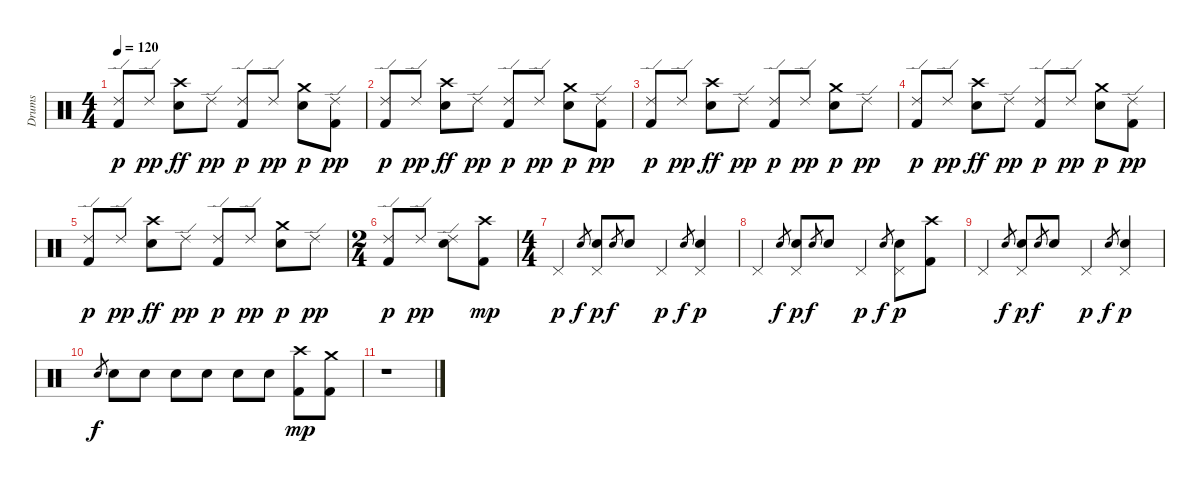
\track ("Drums" "Drums") {instrument percussion}
\staff {score}
\articulation defaults
\ts (4 4)
\tempo 120
\clef neutral
\ks c
("Ride (edge) 2" "Kick (hit) 2").8{dy p} "Ride (edge) 2".8{dy pp} ("Crash high (hit)" "Electric Snare (hit)").8{dy ff} "Ride (edge) 2".8{dy pp} ("Kick (hit) 2" "Ride (edge) 2").8{dy p} "Ride (edge) 2".8{dy pp} ("Electric Snare (hit)" "Crash medium (hit)").8{dy p} ("Ride (edge) 2" "Kick (hit) 2").8{dy pp} |
("Ride (edge) 2" "Kick (hit) 2").8{dy p} "Ride (edge) 2".8{dy pp} ("Crash high (hit)" "Electric Snare (hit)").8{dy ff} "Ride (edge) 2".8{dy pp} ("Kick (hit) 2" "Ride (edge) 2").8{dy p} "Ride (edge) 2".8{dy pp} ("Electric Snare (hit)" "Crash medium (hit)").8{dy p} ("Ride (edge) 2" "Kick (hit) 2").8{dy pp} |
("Ride (edge) 2" "Kick (hit) 2").8{dy p} "Ride (edge) 2".8{dy pp} ("Crash high (hit)" "Electric Snare (hit)").8{dy ff} "Ride (edge) 2".8{dy pp} ("Kick (hit) 2" "Ride (edge) 2").8{dy p} "Ride (edge) 2".8{dy pp} ("Electric Snare (hit)" "Crash medium (hit)").8{dy p} "Ride (edge) 2".8{dy pp} |
("Ride (edge) 2" "Kick (hit) 2").8{dy p} "Ride (edge) 2".8{dy pp} ("Crash high (hit)" "Electric Snare (hit)").8{dy ff} "Ride (edge) 2".8{dy pp} ("Kick (hit) 2" "Ride (edge) 2").8{dy p} "Ride (edge) 2".8{dy pp} ("Electric Snare (hit)" "Crash medium (hit)").8{dy p} ("Ride (edge) 2" "Kick (hit) 2").8{dy pp} |
("Ride (edge) 2" "Kick (hit) 2").8{dy p} "Ride (edge) 2".8{dy pp} ("Crash high (hit)" "Electric Snare (hit)").8{dy ff} "Ride (edge) 2".8{dy pp} ("Kick (hit) 2" "Ride (edge) 2").8{dy p} "Ride (edge) 2".8{dy pp} ("Electric Snare (hit)" "Crash medium (hit)").8{dy p} "Ride (edge) 2".8{dy pp} |
\ts (2 4)
("Kick (hit) 2" "Ride (edge) 2").8{dy p} "Ride (edge) 2".8{dy pp} ("Electric Snare (hit)" "Ride (edge) 2").8 ("Crash high (hit)" "Kick (hit) 2").8{dy mp} |
\ts (4 4)
"Pedal Hi-Hat (hit)".4{dy p} "Electric Snare (hit)".8{gr dy f} ("Electric Snare (hit)" "Pedal Hi-Hat (hit)").8{dy p} "Electric Snare (hit)".8{gr dy f} "Electric Snare (hit)".8 "Pedal Hi-Hat (hit)".4{dy p} "Electric Snare (hit)".8{gr dy f} ("Electric Snare (hit)" "Pedal Hi-Hat (hit)").4{dy p} |
"Pedal Hi-Hat (hit)".4 "Electric Snare (hit)".8{gr dy f} ("Electric Snare (hit)" "Pedal Hi-Hat (hit)").8{dy p} "Electric Snare (hit)".8{gr dy f} "Electric Snare (hit)".8 "Pedal Hi-Hat (hit)".4{dy p} "Electric Snare (hit)".8{gr dy f} ("Electric Snare (hit)" "Pedal Hi-Hat (hit)").8{dy p} ("Kick (hit) 2" "Crash high (hit)").8 |
"Pedal Hi-Hat (hit)".4 "Electric Snare (hit)".8{gr dy f} ("Electric Snare (hit)" "Pedal Hi-Hat (hit)").8{dy p} "Electric Snare (hit)".8{gr dy f} "Electric Snare (hit)".8 "Pedal Hi-Hat (hit)".4{dy p} "Electric Snare (hit)".8{gr dy f} ("Electric Snare (hit)" "Pedal Hi-Hat (hit)").4{dy p} |
"Electric Snare (hit)".8{gr dy f} "Electric Snare (hit)".8 "Electric Snare (hit)".8 "Electric Snare (hit)".8 "Electric Snare (hit)".8 "Electric Snare (hit)".8 "Electric Snare (hit)".8 ("Kick (hit) 2" "Crash high (hit)").8{dy mp} ("Kick (hit) 2" "Crash medium (hit)").8 |
r.1
